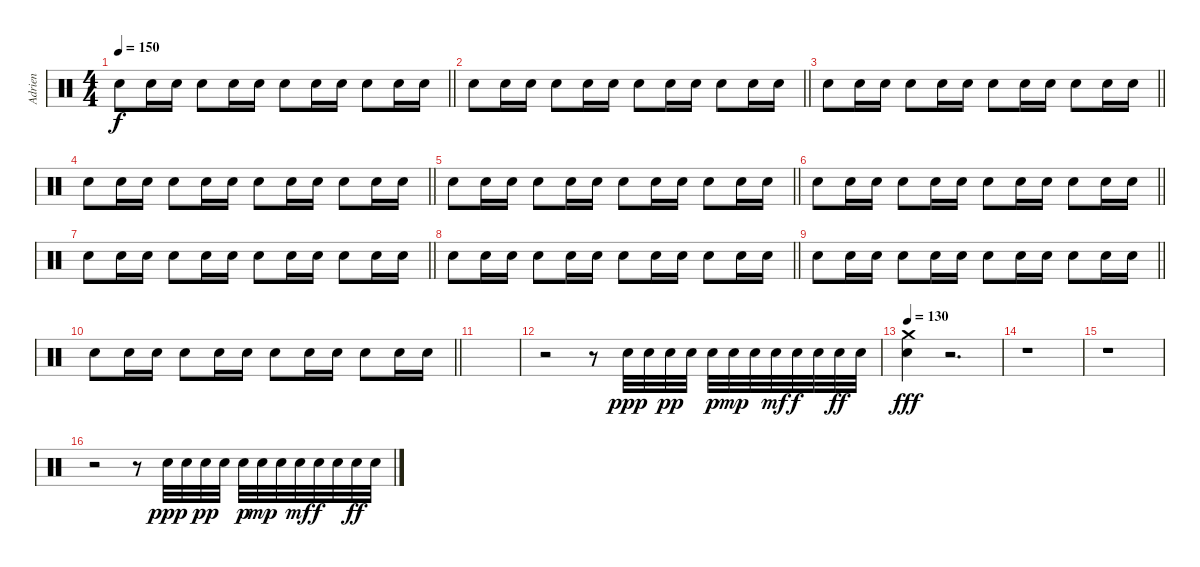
\track ("Adrien" "Adrien") {instrument percussion}
\staff {score}
\articulation defaults
\ts (4 4)
\tempo 150
\clef neutral
\barLineRight lightlight
\ks c "Snare (hit) 2".8{dy f} "Electric Snare (hit)".16 "Electric Snare (hit)".16 "Snare (hit) 2".8 "Electric Snare (hit)".16 "Electric Snare (hit)".16 "Snare (hit) 2".8 "Electric Snare (hit)".16 "Electric Snare (hit)".16 "Snare (hit) 2".8 "Electric Snare (hit)".16 "Electric Snare (hit)".16
|
\barLineRight lightlight "Snare (hit) 2".8 "Electric Snare (hit)".16 "Electric Snare (hit)".16 "Snare (hit) 2".8 "Electric Snare (hit)".16 "Electric Snare (hit)".16 "Snare (hit) 2".8 "Electric Snare (hit)".16 "Electric Snare (hit)".16 "Snare (hit) 2".8 "Electric Snare (hit)".16 "Electric Snare (hit)".16
|
\barLineRight lightlight "Snare (hit) 2".8 "Electric Snare (hit)".16 "Electric Snare (hit)".16 "Snare (hit) 2".8 "Electric Snare (hit)".16 "Electric Snare (hit)".16 "Snare (hit) 2".8 "Electric Snare (hit)".16 "Electric Snare (hit)".16 "Snare (hit) 2".8 "Electric Snare (hit)".16 "Electric Snare (hit)".16
|
\barLineRight lightlight "Snare (hit) 2".8 "Electric Snare (hit)".16 "Electric Snare (hit)".16 "Snare (hit) 2".8 "Electric Snare (hit)".16 "Electric Snare (hit)".16 "Snare (hit) 2".8 "Electric Snare (hit)".16 "Electric Snare (hit)".16 "Snare (hit) 2".8 "Electric Snare (hit)".16 "Electric Snare (hit)".16
|
\barLineRight lightlight "Snare (hit) 2".8 "Electric Snare (hit)".16 "Electric Snare (hit)".16 "Snare (hit) 2".8 "Electric Snare (hit)".16 "Electric Snare (hit)".16 "Snare (hit) 2".8 "Electric Snare (hit)".16 "Electric Snare (hit)".16 "Snare (hit) 2".8 "Electric Snare (hit)".16 "Electric Snare (hit)".16
|
\barLineRight lightlight "Snare (hit) 2".8 "Electric Snare (hit)".16 "Electric Snare (hit)".16 "Snare (hit) 2".8 "Electric Snare (hit)".16 "Electric Snare (hit)".16 "Snare (hit) 2".8 "Electric Snare (hit)".16 "Electric Snare (hit)".16 "Snare (hit) 2".8 "Electric Snare (hit)".16 "Electric Snare (hit)".16
|
\barLineRight lightlight "Snare (hit) 2".8 "Electric Snare (hit)".16 "Electric Snare (hit)".16 "Snare (hit) 2".8 "Electric Snare (hit)".16 "Electric Snare (hit)".16 "Snare (hit) 2".8 "Electric Snare (hit)".16 "Electric Snare (hit)".16 "Snare (hit) 2".8 "Electric Snare (hit)".16 "Electric Snare (hit)".16
|
\barLineRight lightlight "Snare (hit) 2".8 "Electric Snare (hit)".16 "Electric Snare (hit)".16 "Snare (hit) 2".8 "Electric Snare (hit)".16 "Electric Snare (hit)".16 "Snare (hit) 2".8 "Electric Snare (hit)".16 "Electric Snare (hit)".16 "Snare (hit) 2".8 "Electric Snare (hit)".16 "Electric Snare (hit)".16
|
\barLineRight lightlight "Snare (hit) 2".8 "Electric Snare (hit)".16 "Electric Snare (hit)".16 "Snare (hit) 2".8 "Electric Snare (hit)".16 "Electric Snare (hit)".16 "Snare (hit) 2".8 "Electric Snare (hit)".16 "Electric Snare (hit)".16 "Snare (hit) 2".8 "Electric Snare (hit)".16 "Electric Snare (hit)".16
|
\barLineRight lightlight "Snare (hit) 2".8 "Electric Snare (hit)".16 "Electric Snare (hit)".16 "Snare (hit) 2".8 "Electric Snare (hit)".16 "Electric Snare (hit)".16 "Snare (hit) 2".8 "Electric Snare (hit)".16 "Electric Snare (hit)".16 "Snare (hit) 2".8 "Electric Snare (hit)".16 "Electric Snare (hit)".16
|
|
r.2 r.8 "Snare (hit) 2".32{dy ppp} "Snare (hit) 2".32 "Snare (hit) 2".32{dy pp} "Snare (hit) 2".32 "Snare (hit) 2".32{dy p} "Snare (hit) 2".32{dy mp} "Snare (hit) 2".32 "Snare (hit) 2".32{dy mf} "Snare (hit) 2".32{dy f} "Snare (hit) 2".32 "Snare (hit) 2".32{dy ff} "Snare (hit) 2".32 |
\tempo 130
("Snare (hit) 2" "Crash medium (hit)").4{dy fff} r.2{d} |
r.1 |
r.1 |
r.2 r.8 "Snare (hit) 2".32{dy ppp} "Snare (hit) 2".32 "Snare (hit) 2".32{dy pp} "Snare (hit) 2".32 "Snare (hit) 2".32{dy p} "Snare (hit) 2".32{dy mp} "Snare (hit) 2".32 "Snare (hit) 2".32{dy mf} "Snare (hit) 2".32{dy f} "Snare (hit) 2".32 "Snare (hit) 2".32{dy ff} "Snare (hit) 2".32
